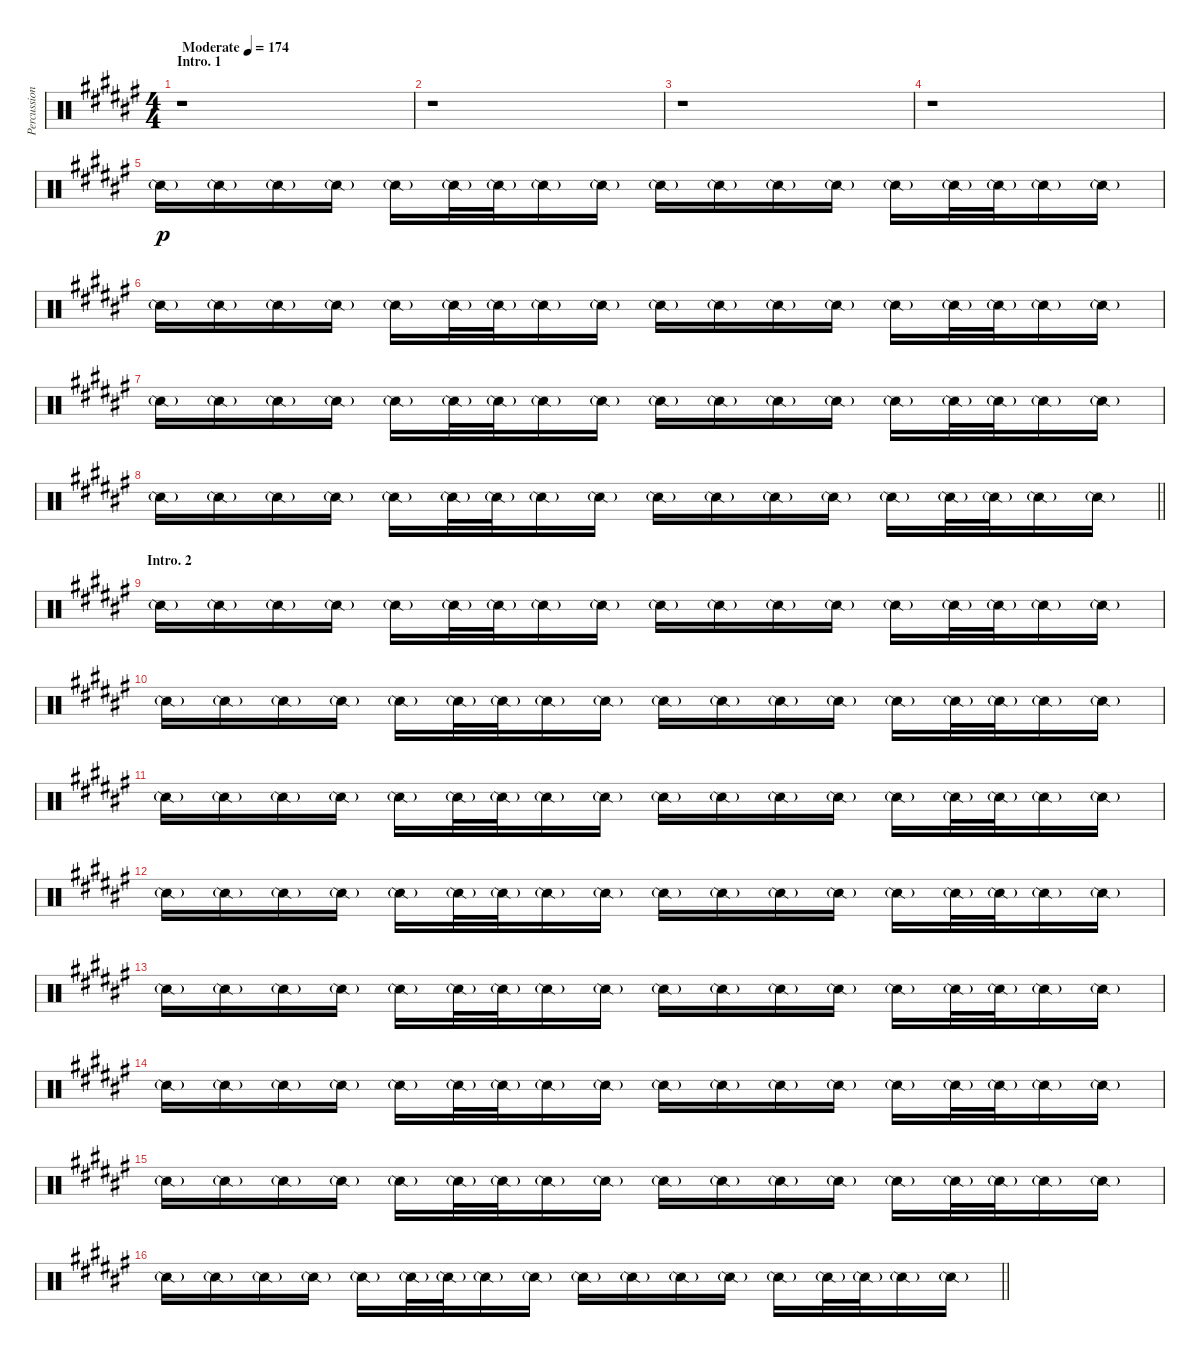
\track ("Percussion I" "Percussion") {instrument percussion}
\staff {score}
\articulation defaults
\ts (4 4)
\section ("" "Intro. 1")
\tempo (174 "Moderate")
\clef neutral
\ks f#
r.1{dy p} |
r.1 |
r.1 |
r.1 |
"Snare (side stick) 2"{g}.16 "Snare (side stick) 2"{g}.16 "Snare (side stick) 2"{g}.16 "Snare (side stick) 2"{g}.16 "Snare (side stick) 2"{g}.16 "Snare (side stick) 2"{g}.32 "Snare (side stick) 2"{g}.32 "Snare (side stick) 2"{g}.16 "Snare (side stick) 2"{g}.16 "Snare (side stick) 2"{g}.16 "Snare (side stick) 2"{g}.16 "Snare (side stick) 2"{g}.16 "Snare (side stick) 2"{g}.16 "Snare (side stick) 2"{g}.16 "Snare (side stick) 2"{g}.32 "Snare (side stick) 2"{g}.32 "Snare (side stick) 2"{g}.16 "Snare (side stick) 2"{g}.16 |
"Snare (side stick) 2"{g}.16 "Snare (side stick) 2"{g}.16 "Snare (side stick) 2"{g}.16 "Snare (side stick) 2"{g}.16 "Snare (side stick) 2"{g}.16 "Snare (side stick) 2"{g}.32 "Snare (side stick) 2"{g}.32 "Snare (side stick) 2"{g}.16 "Snare (side stick) 2"{g}.16 "Snare (side stick) 2"{g}.16 "Snare (side stick) 2"{g}.16 "Snare (side stick) 2"{g}.16 "Snare (side stick) 2"{g}.16 "Snare (side stick) 2"{g}.16 "Snare (side stick) 2"{g}.32 "Snare (side stick) 2"{g}.32 "Snare (side stick) 2"{g}.16 "Snare (side stick) 2"{g}.16 |
"Snare (side stick) 2"{g}.16 "Snare (side stick) 2"{g}.16 "Snare (side stick) 2"{g}.16 "Snare (side stick) 2"{g}.16 "Snare (side stick) 2"{g}.16 "Snare (side stick) 2"{g}.32 "Snare (side stick) 2"{g}.32 "Snare (side stick) 2"{g}.16 "Snare (side stick) 2"{g}.16 "Snare (side stick) 2"{g}.16 "Snare (side stick) 2"{g}.16 "Snare (side stick) 2"{g}.16 "Snare (side stick) 2"{g}.16 "Snare (side stick) 2"{g}.16 "Snare (side stick) 2"{g}.32 "Snare (side stick) 2"{g}.32 "Snare (side stick) 2"{g}.16 "Snare (side stick) 2"{g}.16 |
\barLineRight lightlight "Snare (side stick) 2"{g}.16 "Snare (side stick) 2"{g}.16 "Snare (side stick) 2"{g}.16 "Snare (side stick) 2"{g}.16 "Snare (side stick) 2"{g}.16 "Snare (side stick) 2"{g}.32 "Snare (side stick) 2"{g}.32 "Snare (side stick) 2"{g}.16 "Snare (side stick) 2"{g}.16 "Snare (side stick) 2"{g}.16 "Snare (side stick) 2"{g}.16 "Snare (side stick) 2"{g}.16 "Snare (side stick) 2"{g}.16 "Snare (side stick) 2"{g}.16 "Snare (side stick) 2"{g}.32 "Snare (side stick) 2"{g}.32 "Snare (side stick) 2"{g}.16 "Snare (side stick) 2"{g}.16
|
\section ("" "Intro. 2")
"Snare (side stick) 2"{g}.16 "Snare (side stick) 2"{g}.16 "Snare (side stick) 2"{g}.16 "Snare (side stick) 2"{g}.16 "Snare (side stick) 2"{g}.16 "Snare (side stick) 2"{g}.32 "Snare (side stick) 2"{g}.32 "Snare (side stick) 2"{g}.16 "Snare (side stick) 2"{g}.16 "Snare (side stick) 2"{g}.16 "Snare (side stick) 2"{g}.16 "Snare (side stick) 2"{g}.16 "Snare (side stick) 2"{g}.16 "Snare (side stick) 2"{g}.16 "Snare (side stick) 2"{g}.32 "Snare (side stick) 2"{g}.32 "Snare (side stick) 2"{g}.16 "Snare (side stick) 2"{g}.16 |
"Snare (side stick) 2"{g}.16 "Snare (side stick) 2"{g}.16 "Snare (side stick) 2"{g}.16 "Snare (side stick) 2"{g}.16 "Snare (side stick) 2"{g}.16 "Snare (side stick) 2"{g}.32 "Snare (side stick) 2"{g}.32 "Snare (side stick) 2"{g}.16 "Snare (side stick) 2"{g}.16 "Snare (side stick) 2"{g}.16 "Snare (side stick) 2"{g}.16 "Snare (side stick) 2"{g}.16 "Snare (side stick) 2"{g}.16 "Snare (side stick) 2"{g}.16 "Snare (side stick) 2"{g}.32 "Snare (side stick) 2"{g}.32 "Snare (side stick) 2"{g}.16 "Snare (side stick) 2"{g}.16 |
"Snare (side stick) 2"{g}.16 "Snare (side stick) 2"{g}.16 "Snare (side stick) 2"{g}.16 "Snare (side stick) 2"{g}.16 "Snare (side stick) 2"{g}.16 "Snare (side stick) 2"{g}.32 "Snare (side stick) 2"{g}.32 "Snare (side stick) 2"{g}.16 "Snare (side stick) 2"{g}.16 "Snare (side stick) 2"{g}.16 "Snare (side stick) 2"{g}.16 "Snare (side stick) 2"{g}.16 "Snare (side stick) 2"{g}.16 "Snare (side stick) 2"{g}.16 "Snare (side stick) 2"{g}.32 "Snare (side stick) 2"{g}.32 "Snare (side stick) 2"{g}.16 "Snare (side stick) 2"{g}.16 |
"Snare (side stick) 2"{g}.16 "Snare (side stick) 2"{g}.16 "Snare (side stick) 2"{g}.16 "Snare (side stick) 2"{g}.16 "Snare (side stick) 2"{g}.16 "Snare (side stick) 2"{g}.32 "Snare (side stick) 2"{g}.32 "Snare (side stick) 2"{g}.16 "Snare (side stick) 2"{g}.16 "Snare (side stick) 2"{g}.16 "Snare (side stick) 2"{g}.16 "Snare (side stick) 2"{g}.16 "Snare (side stick) 2"{g}.16 "Snare (side stick) 2"{g}.16 "Snare (side stick) 2"{g}.32 "Snare (side stick) 2"{g}.32 "Snare (side stick) 2"{g}.16 "Snare (side stick) 2"{g}.16 |
"Snare (side stick) 2"{g}.16 "Snare (side stick) 2"{g}.16 "Snare (side stick) 2"{g}.16 "Snare (side stick) 2"{g}.16 "Snare (side stick) 2"{g}.16 "Snare (side stick) 2"{g}.32 "Snare (side stick) 2"{g}.32 "Snare (side stick) 2"{g}.16 "Snare (side stick) 2"{g}.16 "Snare (side stick) 2"{g}.16 "Snare (side stick) 2"{g}.16 "Snare (side stick) 2"{g}.16 "Snare (side stick) 2"{g}.16 "Snare (side stick) 2"{g}.16 "Snare (side stick) 2"{g}.32 "Snare (side stick) 2"{g}.32 "Snare (side stick) 2"{g}.16 "Snare (side stick) 2"{g}.16 |
"Snare (side stick) 2"{g}.16 "Snare (side stick) 2"{g}.16 "Snare (side stick) 2"{g}.16 "Snare (side stick) 2"{g}.16 "Snare (side stick) 2"{g}.16 "Snare (side stick) 2"{g}.32 "Snare (side stick) 2"{g}.32 "Snare (side stick) 2"{g}.16 "Snare (side stick) 2"{g}.16 "Snare (side stick) 2"{g}.16 "Snare (side stick) 2"{g}.16 "Snare (side stick) 2"{g}.16 "Snare (side stick) 2"{g}.16 "Snare (side stick) 2"{g}.16 "Snare (side stick) 2"{g}.32 "Snare (side stick) 2"{g}.32 "Snare (side stick) 2"{g}.16 "Snare (side stick) 2"{g}.16 |
"Snare (side stick) 2"{g}.16 "Snare (side stick) 2"{g}.16 "Snare (side stick) 2"{g}.16 "Snare (side stick) 2"{g}.16 "Snare (side stick) 2"{g}.16 "Snare (side stick) 2"{g}.32 "Snare (side stick) 2"{g}.32 "Snare (side stick) 2"{g}.16 "Snare (side stick) 2"{g}.16 "Snare (side stick) 2"{g}.16 "Snare (side stick) 2"{g}.16 "Snare (side stick) 2"{g}.16 "Snare (side stick) 2"{g}.16 "Snare (side stick) 2"{g}.16 "Snare (side stick) 2"{g}.32 "Snare (side stick) 2"{g}.32 "Snare (side stick) 2"{g}.16 "Snare (side stick) 2"{g}.16 |
\barLineRight lightlight "Snare (side stick) 2"{g}.16 "Snare (side stick) 2"{g}.16 "Snare (side stick) 2"{g}.16 "Snare (side stick) 2"{g}.16 "Snare (side stick) 2"{g}.16 "Snare (side stick) 2"{g}.32 "Snare (side stick) 2"{g}.32 "Snare (side stick) 2"{g}.16 "Snare (side stick) 2"{g}.16 "Snare (side stick) 2"{g}.16 "Snare (side stick) 2"{g}.16 "Snare (side stick) 2"{g}.16 "Snare (side stick) 2"{g}.16 "Snare (side stick) 2"{g}.16 "Snare (side stick) 2"{g}.32 "Snare (side stick) 2"{g}.32 "Snare (side stick) 2"{g}.16 "Snare (side stick) 2"{g}.16
